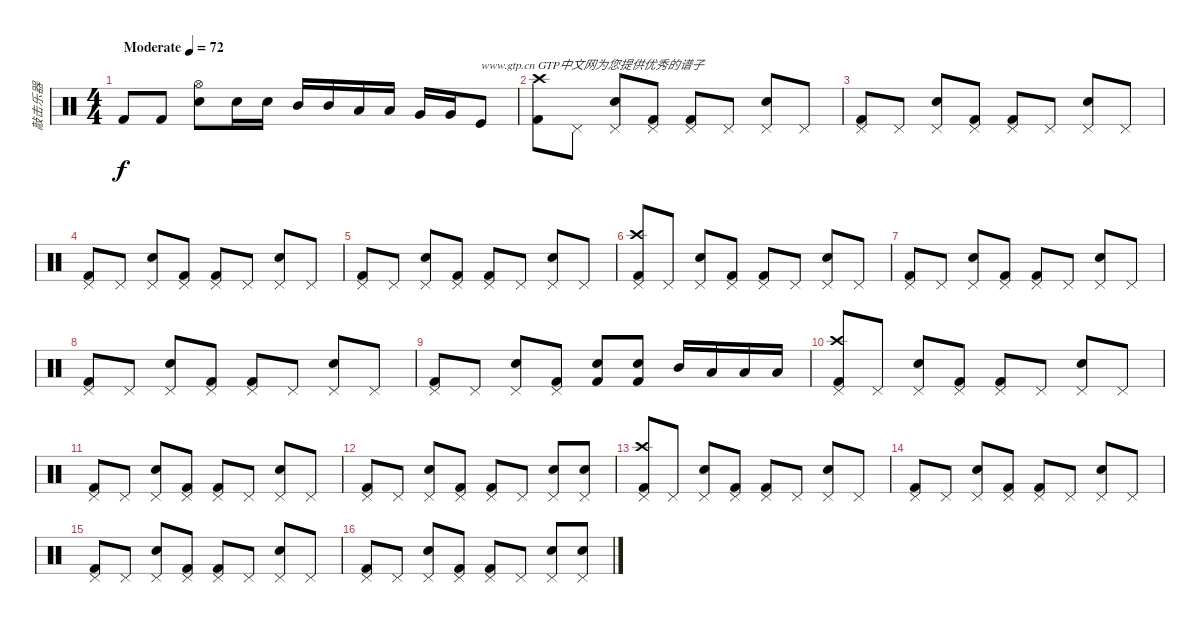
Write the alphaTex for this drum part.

\track ("敲击乐器" "敲击乐器") {instrument percussion}
\staff {score}
\articulation defaults
\ts (4 4)
\tempo (72 "Moderate")
\clef neutral
\ks c "Kick (hit) 2".8{dy f} "Kick (hit) 2".8
("Electric Snare (hit)" "Hi-Hat (open)").8 "Electric Snare (hit)".16 "Electric Snare (hit)".16 "Mid Tom (hit)".16 "Mid Tom (hit)".16 "Low Tom (hit)".16 "Low Tom (hit)".16 "Very Low Tom (hit)".16 "Very Low Tom (hit)".16 "Kick (hit)".8{txt "www.gtp.cn GTP中文网为您提供优秀的谱子"} |
("Crash high (hit)" "Kick (hit) 2").8 "Pedal Hi-Hat (hit)".8 ("Pedal Hi-Hat (hit)" "Snare (hit) 2").8 ("Pedal Hi-Hat (hit)" "Kick (hit) 2").8 ("Pedal Hi-Hat (hit)" "Kick (hit) 2").8 "Pedal Hi-Hat (hit)".8 ("Pedal Hi-Hat (hit)" "Snare (hit) 2").8 "Pedal Hi-Hat (hit)".8 |
("Pedal Hi-Hat (hit)" "Kick (hit) 2").8 "Pedal Hi-Hat (hit)".8 ("Pedal Hi-Hat (hit)" "Snare (hit) 2").8 ("Pedal Hi-Hat (hit)" "Kick (hit) 2").8 ("Pedal Hi-Hat (hit)" "Kick (hit) 2").8 "Pedal Hi-Hat (hit)".8 ("Pedal Hi-Hat (hit)" "Snare (hit) 2").8 "Pedal Hi-Hat (hit)".8 |
("Pedal Hi-Hat (hit)" "Kick (hit) 2").8 "Pedal Hi-Hat (hit)".8 ("Pedal Hi-Hat (hit)" "Snare (hit) 2").8 ("Pedal Hi-Hat (hit)" "Kick (hit) 2").8 ("Pedal Hi-Hat (hit)" "Kick (hit) 2").8 "Pedal Hi-Hat (hit)".8 ("Pedal Hi-Hat (hit)" "Snare (hit) 2").8 "Pedal Hi-Hat (hit)".8 |
("Pedal Hi-Hat (hit)" "Kick (hit) 2").8 "Pedal Hi-Hat (hit)".8 ("Pedal Hi-Hat (hit)" "Snare (hit) 2").8 ("Pedal Hi-Hat (hit)" "Kick (hit) 2").8 ("Pedal Hi-Hat (hit)" "Kick (hit) 2").8 "Pedal Hi-Hat (hit)".8 ("Pedal Hi-Hat (hit)" "Snare (hit) 2").8 "Pedal Hi-Hat (hit)".8 |
("Crash high (hit)" "Pedal Hi-Hat (hit)" "Kick (hit) 2").8 "Pedal Hi-Hat (hit)".8 ("Pedal Hi-Hat (hit)" "Snare (hit) 2").8 ("Pedal Hi-Hat (hit)" "Kick (hit) 2").8 ("Pedal Hi-Hat (hit)" "Kick (hit) 2").8 "Pedal Hi-Hat (hit)".8 ("Pedal Hi-Hat (hit)" "Snare (hit) 2").8 "Pedal Hi-Hat (hit)".8 |
("Pedal Hi-Hat (hit)" "Kick (hit) 2").8 "Pedal Hi-Hat (hit)".8 ("Pedal Hi-Hat (hit)" "Snare (hit) 2").8 ("Pedal Hi-Hat (hit)" "Kick (hit) 2").8 ("Pedal Hi-Hat (hit)" "Kick (hit) 2").8 "Pedal Hi-Hat (hit)".8 ("Pedal Hi-Hat (hit)" "Snare (hit) 2").8 "Pedal Hi-Hat (hit)".8 |
("Pedal Hi-Hat (hit)" "Kick (hit) 2").8 "Pedal Hi-Hat (hit)".8 ("Pedal Hi-Hat (hit)" "Snare (hit) 2").8 ("Pedal Hi-Hat (hit)" "Kick (hit) 2").8 ("Pedal Hi-Hat (hit)" "Kick (hit) 2").8 "Pedal Hi-Hat (hit)".8 ("Pedal Hi-Hat (hit)" "Snare (hit) 2").8 "Pedal Hi-Hat (hit)".8 |
("Pedal Hi-Hat (hit)" "Kick (hit) 2").8 "Pedal Hi-Hat (hit)".8 ("Pedal Hi-Hat (hit)" "Snare (hit) 2").8 ("Pedal Hi-Hat (hit)" "Kick (hit) 2").8 ("Snare (hit) 2" "Kick (hit) 2").8 ("Snare (hit) 2" "Kick (hit) 2").8 "Mid Tom (hit)".16 "Low Tom (hit)".16 "Low Floor Tom (hit)".16 "Low Floor Tom (hit)".16 |
("Crash high (hit)" "Pedal Hi-Hat (hit)" "Kick (hit) 2").8 "Pedal Hi-Hat (hit)".8 ("Pedal Hi-Hat (hit)" "Snare (hit) 2").8 ("Pedal Hi-Hat (hit)" "Kick (hit) 2").8 ("Pedal Hi-Hat (hit)" "Kick (hit) 2").8 "Pedal Hi-Hat (hit)".8 ("Pedal Hi-Hat (hit)" "Snare (hit) 2").8 "Pedal Hi-Hat (hit)".8 |
("Pedal Hi-Hat (hit)" "Kick (hit) 2").8 "Pedal Hi-Hat (hit)".8 ("Pedal Hi-Hat (hit)" "Snare (hit) 2").8 ("Pedal Hi-Hat (hit)" "Kick (hit) 2").8 ("Pedal Hi-Hat (hit)" "Kick (hit) 2").8 "Pedal Hi-Hat (hit)".8 ("Pedal Hi-Hat (hit)" "Snare (hit) 2").8 "Pedal Hi-Hat (hit)".8 |
("Pedal Hi-Hat (hit)" "Kick (hit) 2").8 "Pedal Hi-Hat (hit)".8 ("Pedal Hi-Hat (hit)" "Snare (hit) 2").8 ("Pedal Hi-Hat (hit)" "Kick (hit) 2").8 ("Pedal Hi-Hat (hit)" "Kick (hit) 2").8 "Pedal Hi-Hat (hit)".8 ("Pedal Hi-Hat (hit)" "Snare (hit) 2").8 ("Pedal Hi-Hat (hit)" "Snare (hit) 2").8 |
("Crash high (hit)" "Pedal Hi-Hat (hit)" "Kick (hit) 2").8 "Pedal Hi-Hat (hit)".8 ("Pedal Hi-Hat (hit)" "Snare (hit) 2").8 ("Pedal Hi-Hat (hit)" "Kick (hit) 2").8 ("Pedal Hi-Hat (hit)" "Kick (hit) 2").8 "Pedal Hi-Hat (hit)".8 ("Pedal Hi-Hat (hit)" "Snare (hit) 2").8 "Pedal Hi-Hat (hit)".8 |
("Pedal Hi-Hat (hit)" "Kick (hit) 2").8 "Pedal Hi-Hat (hit)".8 ("Pedal Hi-Hat (hit)" "Snare (hit) 2").8 ("Pedal Hi-Hat (hit)" "Kick (hit) 2").8 ("Pedal Hi-Hat (hit)" "Kick (hit) 2").8 "Pedal Hi-Hat (hit)".8 ("Pedal Hi-Hat (hit)" "Snare (hit) 2").8 "Pedal Hi-Hat (hit)".8 |
("Pedal Hi-Hat (hit)" "Kick (hit) 2").8 "Pedal Hi-Hat (hit)".8 ("Pedal Hi-Hat (hit)" "Snare (hit) 2").8 ("Pedal Hi-Hat (hit)" "Kick (hit) 2").8 ("Pedal Hi-Hat (hit)" "Kick (hit) 2").8 "Pedal Hi-Hat (hit)".8 ("Pedal Hi-Hat (hit)" "Snare (hit) 2").8 "Pedal Hi-Hat (hit)".8 |
("Pedal Hi-Hat (hit)" "Kick (hit) 2").8 "Pedal Hi-Hat (hit)".8 ("Pedal Hi-Hat (hit)" "Snare (hit) 2").8 ("Pedal Hi-Hat (hit)" "Kick (hit) 2").8 ("Pedal Hi-Hat (hit)" "Kick (hit) 2").8 "Pedal Hi-Hat (hit)".8 ("Pedal Hi-Hat (hit)" "Snare (hit) 2").8 ("Pedal Hi-Hat (hit)" "Snare (hit) 2").8
